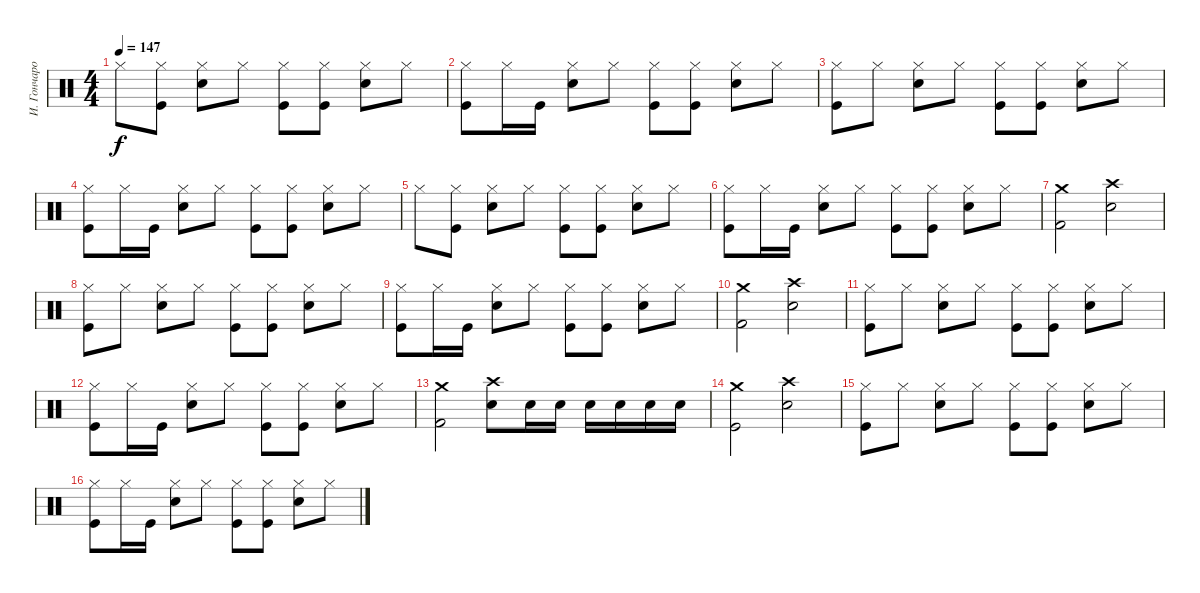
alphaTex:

\track ("И. Гончаров" "И. Гончаро") {instrument percussion}
\staff {score}
\articulation defaults
\ts (4 4)
\tempo 147
\clef neutral
\ks c "Hi-Hat (closed)".8{dy f}
("Hi-Hat (closed)" "Kick (hit)").8 ("Hi-Hat (closed)" "Snare (hit) 2").8 "Hi-Hat (closed)".8 ("Hi-Hat (closed)" "Kick (hit)").8 ("Hi-Hat (closed)" "Kick (hit)").8 ("Hi-Hat (closed)" "Snare (hit) 2").8 "Hi-Hat (closed)".8 |
("Hi-Hat (closed)" "Kick (hit)").8 "Hi-Hat (closed)".16 "Kick (hit)".16 ("Hi-Hat (closed)" "Snare (hit) 2").8 "Hi-Hat (closed)".8 ("Hi-Hat (closed)" "Kick (hit)").8 ("Hi-Hat (closed)" "Kick (hit)").8 ("Hi-Hat (closed)" "Snare (hit) 2").8 "Hi-Hat (closed)".8 |
("Hi-Hat (closed)" "Kick (hit)").8 "Hi-Hat (closed)".8 ("Hi-Hat (closed)" "Snare (hit) 2").8 "Hi-Hat (closed)".8 ("Hi-Hat (closed)" "Kick (hit)").8 ("Hi-Hat (closed)" "Kick (hit)").8 ("Hi-Hat (closed)" "Snare (hit) 2").8 "Hi-Hat (closed)".8 |
("Hi-Hat (closed)" "Kick (hit)").8 "Hi-Hat (closed)".16 "Kick (hit)".16 ("Hi-Hat (closed)" "Snare (hit) 2").8 "Hi-Hat (closed)".8 ("Hi-Hat (closed)" "Kick (hit)").8 ("Hi-Hat (closed)" "Kick (hit)").8 ("Hi-Hat (closed)" "Snare (hit) 2").8 "Hi-Hat (closed)".8 |
"Hi-Hat (closed)".8 ("Hi-Hat (closed)" "Kick (hit)").8 ("Hi-Hat (closed)" "Snare (hit) 2").8 "Hi-Hat (closed)".8 ("Hi-Hat (closed)" "Kick (hit)").8 ("Hi-Hat (closed)" "Kick (hit)").8 ("Hi-Hat (closed)" "Snare (hit) 2").8 "Hi-Hat (closed)".8 |
("Hi-Hat (closed)" "Kick (hit)").8 "Hi-Hat (closed)".16 "Kick (hit)".16 ("Hi-Hat (closed)" "Snare (hit) 2").8 "Hi-Hat (closed)".8 ("Hi-Hat (closed)" "Kick (hit)").8 ("Hi-Hat (closed)" "Kick (hit)").8 ("Hi-Hat (closed)" "Snare (hit) 2").8 "Hi-Hat (closed)".8 |
("Crash medium (hit)" "Kick (hit) 2").2 ("Crash high (hit)" "Snare (hit) 2").2 |
("Hi-Hat (closed)" "Kick (hit)").8 "Hi-Hat (closed)".8 ("Hi-Hat (closed)" "Snare (hit) 2").8 "Hi-Hat (closed)".8 ("Hi-Hat (closed)" "Kick (hit)").8 ("Hi-Hat (closed)" "Kick (hit)").8 ("Hi-Hat (closed)" "Snare (hit) 2").8 "Hi-Hat (closed)".8 |
("Hi-Hat (closed)" "Kick (hit)").8 "Hi-Hat (closed)".16 "Kick (hit)".16 ("Hi-Hat (closed)" "Snare (hit) 2").8 "Hi-Hat (closed)".8 ("Hi-Hat (closed)" "Kick (hit)").8 ("Hi-Hat (closed)" "Kick (hit)").8 ("Hi-Hat (closed)" "Snare (hit) 2").8 "Hi-Hat (closed)".8 |
("Crash medium (hit)" "Kick (hit) 2").2 ("Crash high (hit)" "Snare (hit) 2").2 |
("Hi-Hat (closed)" "Kick (hit)").8 "Hi-Hat (closed)".8 ("Hi-Hat (closed)" "Snare (hit) 2").8 "Hi-Hat (closed)".8 ("Hi-Hat (closed)" "Kick (hit)").8 ("Hi-Hat (closed)" "Kick (hit)").8 ("Hi-Hat (closed)" "Snare (hit) 2").8 "Hi-Hat (closed)".8 |
("Hi-Hat (closed)" "Kick (hit)").8 "Hi-Hat (closed)".16 "Kick (hit)".16 ("Hi-Hat (closed)" "Snare (hit) 2").8 "Hi-Hat (closed)".8 ("Hi-Hat (closed)" "Kick (hit)").8 ("Hi-Hat (closed)" "Kick (hit)").8 ("Hi-Hat (closed)" "Snare (hit) 2").8 "Hi-Hat (closed)".8 |
("Crash medium (hit)" "Kick (hit) 2").2 ("Crash high (hit)" "Snare (hit) 2").8 "Snare (hit) 2".16 "Snare (hit) 2".16 "Snare (hit) 2".16 "Snare (hit) 2".16 "Snare (hit) 2".16 "Snare (hit) 2".16 |
("Crash medium (hit)" "Kick (hit)").2 ("Crash high (hit)" "Snare (hit) 2").2 |
("Hi-Hat (closed)" "Kick (hit)").8 "Hi-Hat (closed)".8 ("Hi-Hat (closed)" "Snare (hit) 2").8 "Hi-Hat (closed)".8 ("Hi-Hat (closed)" "Kick (hit)").8 ("Hi-Hat (closed)" "Kick (hit)").8 ("Hi-Hat (closed)" "Snare (hit) 2").8 "Hi-Hat (closed)".8 |
("Hi-Hat (closed)" "Kick (hit)").8 "Hi-Hat (closed)".16 "Kick (hit)".16 ("Hi-Hat (closed)" "Snare (hit) 2").8 "Hi-Hat (closed)".8 ("Hi-Hat (closed)" "Kick (hit)").8 ("Hi-Hat (closed)" "Kick (hit)").8 ("Hi-Hat (closed)" "Snare (hit) 2").8 "Hi-Hat (closed)".8
